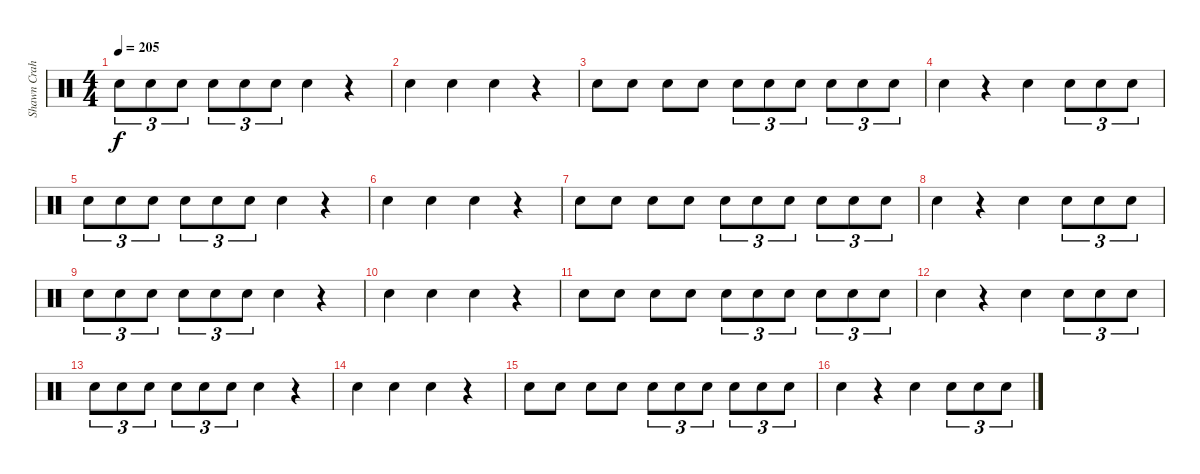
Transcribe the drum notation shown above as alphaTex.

\track ("Shawn Crahan" "Shawn Crah") {instrument percussion}
\staff {score}
\articulation defaults
\ts (4 4)
\tempo 205
\clef neutral
\ks c "Electric Snare (hit)".8{tu (3 2) dy f} "Electric Snare (hit)".8{tu (3 2)} "Electric Snare (hit)".8{tu (3 2)} "Electric Snare (hit)".8{tu (3 2)} "Electric Snare (hit)".8{tu (3 2)} "Electric Snare (hit)".8{tu (3 2)} "Electric Snare (hit)".4
r.4 |
"Electric Snare (hit)".4 "Electric Snare (hit)".4 "Electric Snare (hit)".4 r.4 |
"Electric Snare (hit)".8 "Electric Snare (hit)".8 "Electric Snare (hit)".8 "Electric Snare (hit)".8 "Electric Snare (hit)".8{tu (3 2)} "Electric Snare (hit)".8{tu (3 2)} "Electric Snare (hit)".8{tu (3 2)} "Electric Snare (hit)".8{tu (3 2)} "Electric Snare (hit)".8{tu (3 2)} "Electric Snare (hit)".8{tu (3 2)} |
"Electric Snare (hit)".4 r.4 "Electric Snare (hit)".4 "Electric Snare (hit)".8{tu (3 2)} "Electric Snare (hit)".8{tu (3 2)} "Electric Snare (hit)".8{tu (3 2)} |
"Electric Snare (hit)".8{tu (3 2)} "Electric Snare (hit)".8{tu (3 2)} "Electric Snare (hit)".8{tu (3 2)} "Electric Snare (hit)".8{tu (3 2)} "Electric Snare (hit)".8{tu (3 2)} "Electric Snare (hit)".8{tu (3 2)} "Electric Snare (hit)".4 r.4 |
"Electric Snare (hit)".4 "Electric Snare (hit)".4 "Electric Snare (hit)".4 r.4 |
"Electric Snare (hit)".8 "Electric Snare (hit)".8 "Electric Snare (hit)".8 "Electric Snare (hit)".8 "Electric Snare (hit)".8{tu (3 2)} "Electric Snare (hit)".8{tu (3 2)} "Electric Snare (hit)".8{tu (3 2)} "Electric Snare (hit)".8{tu (3 2)} "Electric Snare (hit)".8{tu (3 2)} "Electric Snare (hit)".8{tu (3 2)} |
"Electric Snare (hit)".4 r.4 "Electric Snare (hit)".4 "Electric Snare (hit)".8{tu (3 2)} "Electric Snare (hit)".8{tu (3 2)} "Electric Snare (hit)".8{tu (3 2)} |
"Electric Snare (hit)".8{tu (3 2)} "Electric Snare (hit)".8{tu (3 2)} "Electric Snare (hit)".8{tu (3 2)} "Electric Snare (hit)".8{tu (3 2)} "Electric Snare (hit)".8{tu (3 2)} "Electric Snare (hit)".8{tu (3 2)} "Electric Snare (hit)".4 r.4 |
"Electric Snare (hit)".4 "Electric Snare (hit)".4 "Electric Snare (hit)".4 r.4 |
"Electric Snare (hit)".8 "Electric Snare (hit)".8 "Electric Snare (hit)".8 "Electric Snare (hit)".8 "Electric Snare (hit)".8{tu (3 2)} "Electric Snare (hit)".8{tu (3 2)} "Electric Snare (hit)".8{tu (3 2)} "Electric Snare (hit)".8{tu (3 2)} "Electric Snare (hit)".8{tu (3 2)} "Electric Snare (hit)".8{tu (3 2)} |
"Electric Snare (hit)".4 r.4 "Electric Snare (hit)".4 "Electric Snare (hit)".8{tu (3 2)} "Electric Snare (hit)".8{tu (3 2)} "Electric Snare (hit)".8{tu (3 2)} |
"Electric Snare (hit)".8{tu (3 2)} "Electric Snare (hit)".8{tu (3 2)} "Electric Snare (hit)".8{tu (3 2)} "Electric Snare (hit)".8{tu (3 2)} "Electric Snare (hit)".8{tu (3 2)} "Electric Snare (hit)".8{tu (3 2)} "Electric Snare (hit)".4 r.4 |
"Electric Snare (hit)".4 "Electric Snare (hit)".4 "Electric Snare (hit)".4 r.4 |
"Electric Snare (hit)".8 "Electric Snare (hit)".8 "Electric Snare (hit)".8 "Electric Snare (hit)".8 "Electric Snare (hit)".8{tu (3 2)} "Electric Snare (hit)".8{tu (3 2)} "Electric Snare (hit)".8{tu (3 2)} "Electric Snare (hit)".8{tu (3 2)} "Electric Snare (hit)".8{tu (3 2)} "Electric Snare (hit)".8{tu (3 2)} |
"Electric Snare (hit)".4 r.4 "Electric Snare (hit)".4 "Electric Snare (hit)".8{tu (3 2)} "Electric Snare (hit)".8{tu (3 2)} "Electric Snare (hit)".8{tu (3 2)}
